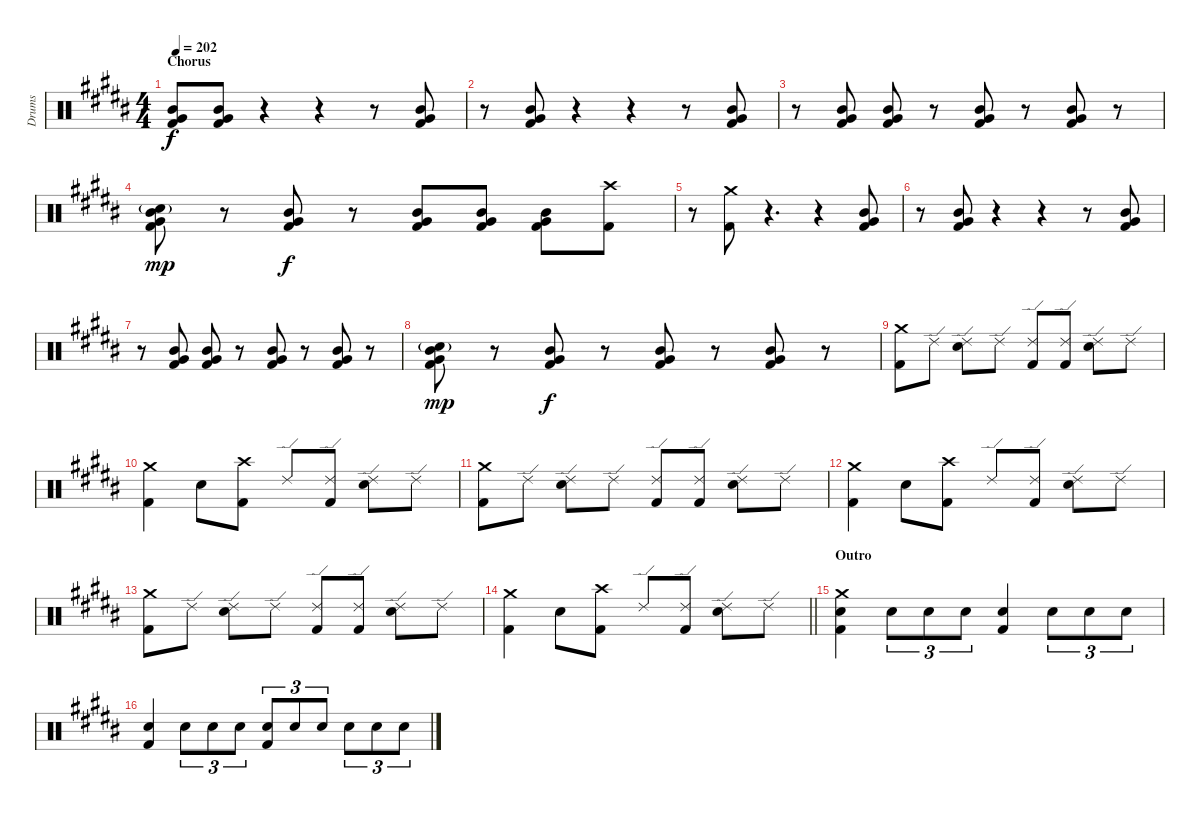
\track ("Drums" "Drums") {instrument percussion}
\staff {score}
\articulation defaults
\ts (4 4)
\section ("" "Chorus")
\tempo 202
\clef neutral
\ks g#minor
("Mid Tom (hit)" "Very Low Tom (hit)" "Kick (hit) 2").8{dy f} ("Mid Tom (hit)" "Very Low Tom (hit)" "Kick (hit) 2").8 r.4 r.4 r.8 ("Mid Tom (hit)" "Very Low Tom (hit)" "Kick (hit) 2").8 |
r.8 ("Mid Tom (hit)" "Very Low Tom (hit)" "Kick (hit) 2").8 r.4 r.4 r.8 ("Mid Tom (hit)" "Very Low Tom (hit)" "Kick (hit) 2").8 |
r.8 ("Mid Tom (hit)" "Very Low Tom (hit)" "Kick (hit) 2").8 ("Mid Tom (hit)" "Very Low Tom (hit)" "Kick (hit) 2").8 r.8 ("Mid Tom (hit)" "Very Low Tom (hit)" "Kick (hit) 2").8 r.8 ("Mid Tom (hit)" "Very Low Tom (hit)" "Kick (hit) 2").8 r.8 |
("Electric Snare (hit)"{g} "Mid Tom (hit)" "Very Low Tom (hit)" "Kick (hit) 2").8{dy mp} r.8 ("Mid Tom (hit)" "Very Low Tom (hit)" "Kick (hit) 2").8{dy f} r.8 ("Mid Tom (hit)" "Very Low Tom (hit)" "Kick (hit) 2").8 ("Mid Tom (hit)" "Very Low Tom (hit)" "Kick (hit) 2").8 ("Mid Tom (hit)" "Very Low Tom (hit)" "Kick (hit) 2").8 ("Crash high (hit)" "Kick (hit) 2").8 |
r.8 ("Crash medium (hit)" "Kick (hit) 2").8 r.4{d} r.4 ("Mid Tom (hit)" "Very Low Tom (hit)" "Kick (hit) 2").8 |
r.8 ("Mid Tom (hit)" "Very Low Tom (hit)" "Kick (hit) 2").8 r.4 r.4 r.8 ("Mid Tom (hit)" "Very Low Tom (hit)" "Kick (hit) 2").8 |
r.8 ("Mid Tom (hit)" "Very Low Tom (hit)" "Kick (hit) 2").8 ("Mid Tom (hit)" "Very Low Tom (hit)" "Kick (hit) 2").8 r.8 ("Mid Tom (hit)" "Very Low Tom (hit)" "Kick (hit) 2").8 r.8 ("Mid Tom (hit)" "Very Low Tom (hit)" "Kick (hit) 2").8 r.8 |
("Electric Snare (hit)"{g} "Mid Tom (hit)" "Very Low Tom (hit)" "Kick (hit) 2").8{dy mp} r.8 ("Mid Tom (hit)" "Very Low Tom (hit)" "Kick (hit) 2").8{dy f} r.8 ("Mid Tom (hit)" "Very Low Tom (hit)" "Kick (hit) 2").8 r.8 ("Mid Tom (hit)" "Very Low Tom (hit)" "Kick (hit) 2").8 r.8 |
("Crash medium (hit)" "Kick (hit) 2").8 "Ride (edge) 2".8 ("Ride (edge) 2" "Electric Snare (hit)").8 "Ride (edge) 2".8 ("Ride (edge) 2" "Kick (hit) 2").8 ("Ride (edge) 2" "Kick (hit) 2").8 ("Ride (edge) 2" "Electric Snare (hit)").8 "Ride (edge) 2".8 |
("Crash medium (hit)" "Kick (hit) 2").4 "Electric Snare (hit)".8 ("Crash high (hit)" "Kick (hit) 2").8 "Ride (edge) 2".8 ("Ride (edge) 2" "Kick (hit) 2").8 ("Ride (edge) 2" "Electric Snare (hit)").8 "Ride (edge) 2".8 |
("Crash medium (hit)" "Kick (hit) 2").8 "Ride (edge) 2".8 ("Ride (edge) 2" "Electric Snare (hit)").8 "Ride (edge) 2".8 ("Ride (edge) 2" "Kick (hit) 2").8 ("Ride (edge) 2" "Kick (hit) 2").8 ("Ride (edge) 2" "Electric Snare (hit)").8 "Ride (edge) 2".8 |
("Crash medium (hit)" "Kick (hit) 2").4 "Electric Snare (hit)".8 ("Crash high (hit)" "Kick (hit) 2").8 "Ride (edge) 2".8 ("Ride (edge) 2" "Kick (hit) 2").8 ("Ride (edge) 2" "Electric Snare (hit)").8 "Ride (edge) 2".8 |
("Crash medium (hit)" "Kick (hit) 2").8 "Ride (edge) 2".8 ("Ride (edge) 2" "Electric Snare (hit)").8 "Ride (edge) 2".8 ("Ride (edge) 2" "Kick (hit) 2").8 ("Ride (edge) 2" "Kick (hit) 2").8 ("Ride (edge) 2" "Electric Snare (hit)").8 "Ride (edge) 2".8 |
\barLineRight lightlight
("Crash medium (hit)" "Kick (hit) 2").4 "Electric Snare (hit)".8 ("Crash high (hit)" "Kick (hit) 2").8 "Ride (edge) 2".8 ("Ride (edge) 2" "Kick (hit) 2").8 ("Ride (edge) 2" "Electric Snare (hit)").8 "Ride (edge) 2".8 |
\section ("" "Outro")
("Crash medium (hit)" "Electric Snare (hit)" "Kick (hit) 2").4 "Electric Snare (hit)".8{tu (3 2)} "Electric Snare (hit)".8{tu (3 2)} "Electric Snare (hit)".8{tu (3 2)} ("Electric Snare (hit)" "Kick (hit) 2").4 "Electric Snare (hit)".8{tu (3 2)} "Electric Snare (hit)".8{tu (3 2)} "Electric Snare (hit)".8{tu (3 2)} |
("Electric Snare (hit)" "Kick (hit) 2").4 "Electric Snare (hit)".8{tu (3 2)} "Electric Snare (hit)".8{tu (3 2)} "Electric Snare (hit)".8{tu (3 2)} ("Electric Snare (hit)" "Kick (hit) 2").8{tu (3 2)} "Electric Snare (hit)".8{tu (3 2)} "Electric Snare (hit)".8{tu (3 2)} "Electric Snare (hit)".8{tu (3 2)} "Electric Snare (hit)".8{tu (3 2)} "Electric Snare (hit)".8{tu (3 2)}
